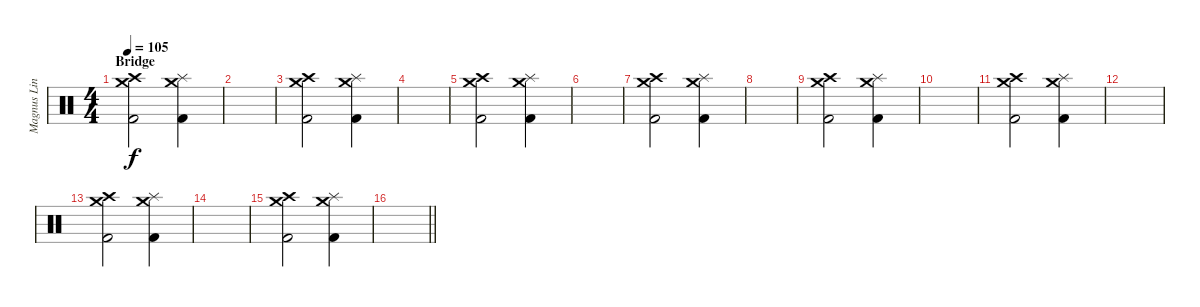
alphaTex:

\track ("Magnus Lindberg" "Magnus Lin") {instrument percussion}
\staff {score}
\articulation defaults
\ts (4 4)
\section ("" "Bridge")
\tempo 105
\clef neutral
\ks c
("Crash medium (hit)" "Crash high (hit)" "Kick (hit) 2").2{dy f} ("Splash (hit)" "Crash medium (hit)" "Kick (hit) 2").4 |
|
("Crash medium (hit)" "Crash high (hit)" "Kick (hit) 2").2 ("Splash (hit)" "Crash medium (hit)" "Kick (hit) 2").4 |
|
("Crash medium (hit)" "Crash high (hit)" "Kick (hit) 2").2 ("Splash (hit)" "Crash medium (hit)" "Kick (hit) 2").4 |
|
("Crash medium (hit)" "Crash high (hit)" "Kick (hit) 2").2 ("Splash (hit)" "Crash medium (hit)" "Kick (hit) 2").4 |
|
("Crash medium (hit)" "Crash high (hit)" "Kick (hit) 2").2 ("Splash (hit)" "Crash medium (hit)" "Kick (hit) 2").4 |
|
("Crash medium (hit)" "Crash high (hit)" "Kick (hit) 2").2 ("Splash (hit)" "Crash medium (hit)" "Kick (hit) 2").4 |
|
("Crash medium (hit)" "Crash high (hit)" "Kick (hit) 2").2 ("Splash (hit)" "Crash medium (hit)" "Kick (hit) 2").4 |
|
("Crash medium (hit)" "Crash high (hit)" "Kick (hit) 2").2 ("Splash (hit)" "Crash medium (hit)" "Kick (hit) 2").4 |
\barLineRight lightlight
